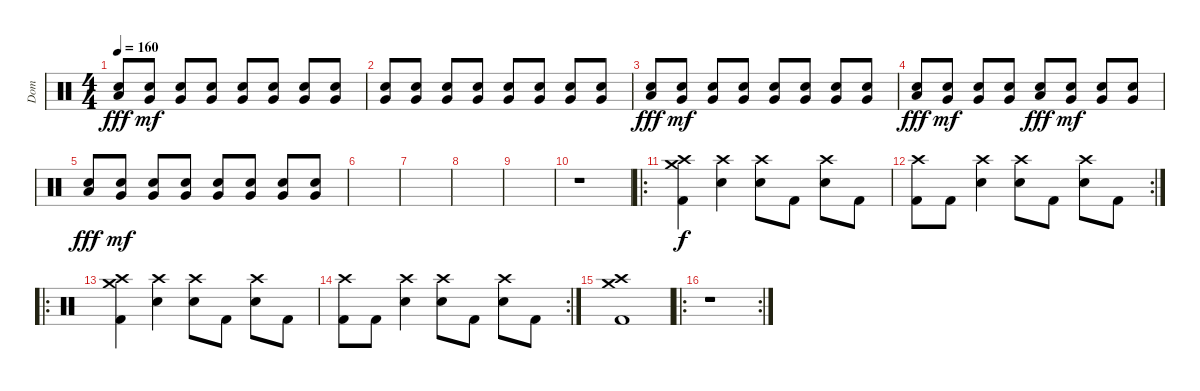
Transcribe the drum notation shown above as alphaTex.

\track ("Dom" "Dom") {instrument percussion}
\staff {score}
\articulation defaults
\ts (4 4)
\tempo 160
\clef neutral
\ks c
("Snare (hit) 2" "Low Floor Tom (hit)").8{dy fff} ("Snare (hit) 2" "Very Low Tom (hit)").8{dy mf} ("Snare (hit) 2" "Very Low Tom (hit)").8 ("Snare (hit) 2" "Very Low Tom (hit)").8 ("Snare (hit) 2" "Very Low Tom (hit)").8 ("Snare (hit) 2" "Very Low Tom (hit)").8 ("Snare (hit) 2" "Very Low Tom (hit)").8 ("Snare (hit) 2" "Very Low Tom (hit)").8 |
("Snare (hit) 2" "Very Low Tom (hit)").8 ("Snare (hit) 2" "Very Low Tom (hit)").8 ("Snare (hit) 2" "Very Low Tom (hit)").8 ("Snare (hit) 2" "Very Low Tom (hit)").8 ("Snare (hit) 2" "Very Low Tom (hit)").8 ("Snare (hit) 2" "Very Low Tom (hit)").8 ("Snare (hit) 2" "Very Low Tom (hit)").8 ("Snare (hit) 2" "Very Low Tom (hit)").8 |
("Snare (hit) 2" "Low Floor Tom (hit)").8{dy fff} ("Snare (hit) 2" "Very Low Tom (hit)").8{dy mf} ("Snare (hit) 2" "Very Low Tom (hit)").8 ("Snare (hit) 2" "Very Low Tom (hit)").8 ("Snare (hit) 2" "Very Low Tom (hit)").8 ("Snare (hit) 2" "Very Low Tom (hit)").8 ("Snare (hit) 2" "Very Low Tom (hit)").8 ("Snare (hit) 2" "Very Low Tom (hit)").8 |
("Snare (hit) 2" "Low Floor Tom (hit)").8{dy fff} ("Snare (hit) 2" "Very Low Tom (hit)").8{dy mf} ("Snare (hit) 2" "Very Low Tom (hit)").8 ("Snare (hit) 2" "Very Low Tom (hit)").8 ("Snare (hit) 2" "Low Floor Tom (hit)").8{dy fff} ("Snare (hit) 2" "Very Low Tom (hit)").8{dy mf} ("Snare (hit) 2" "Very Low Tom (hit)").8 ("Snare (hit) 2" "Very Low Tom (hit)").8 |
("Snare (hit) 2" "Low Floor Tom (hit)").8{dy fff} ("Snare (hit) 2" "Very Low Tom (hit)").8{dy mf} ("Snare (hit) 2" "Very Low Tom (hit)").8 ("Snare (hit) 2" "Very Low Tom (hit)").8 ("Snare (hit) 2" "Very Low Tom (hit)").8 ("Snare (hit) 2" "Very Low Tom (hit)").8 ("Snare (hit) 2" "Very Low Tom (hit)").8 ("Snare (hit) 2" "Very Low Tom (hit)").8 |
|
|
|
|
r.1 |
\ro
("Kick (hit) 2" "Crash high (hit)" "Crash medium (hit)").4{dy f} ("Crash high (hit)" "Snare (hit) 2").4 ("Crash high (hit)" "Snare (hit) 2").8 "Kick (hit) 2".8 ("Crash high (hit)" "Snare (hit) 2").8 "Kick (hit) 2".8 |
\rc 2
("Kick (hit) 2" "Crash high (hit)").8 "Kick (hit) 2".8 ("Crash high (hit)" "Snare (hit) 2").4 ("Crash high (hit)" "Snare (hit) 2").8 "Kick (hit) 2".8 ("Crash high (hit)" "Snare (hit) 2").8 "Kick (hit) 2".8 |
\ro
("Kick (hit) 2" "Crash high (hit)" "Crash medium (hit)").4 ("Crash high (hit)" "Snare (hit) 2").4 ("Crash high (hit)" "Snare (hit) 2").8 "Kick (hit) 2".8 ("Crash high (hit)" "Snare (hit) 2").8 "Kick (hit) 2".8 |
\rc 2
("Kick (hit) 2" "Crash high (hit)").8 "Kick (hit) 2".8 ("Crash high (hit)" "Snare (hit) 2").4 ("Crash high (hit)" "Snare (hit) 2").8 "Kick (hit) 2".8 ("Crash high (hit)" "Snare (hit) 2").8 "Kick (hit) 2".8 |
("Kick (hit) 2" "Crash high (hit)" "Crash medium (hit)").1 |
\ro
\rc 2
r.1
